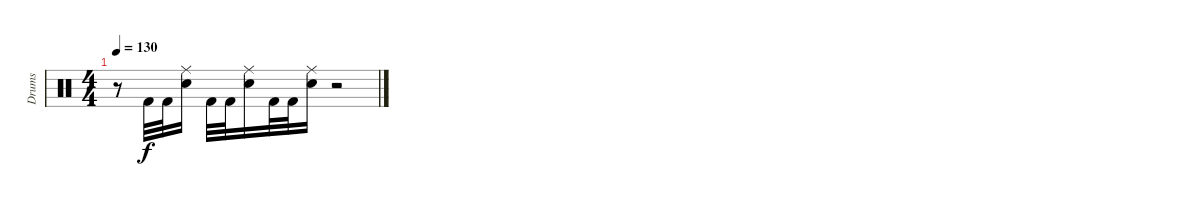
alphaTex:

\track ("Drums" "Drums") {instrument percussion}
\staff {score}
\articulation defaults
\ts (4 4)
\tempo 130
\clef neutral
\ks c
r.8{dy f} "Kick (hit) 2".32 "Kick (hit) 2".32 ("Ride (middle)" "Snare (hit) 2").16 "Kick (hit) 2".32 "Kick (hit) 2".32 ("Ride (middle)" "Snare (hit) 2").16 "Kick (hit) 2".32 "Kick (hit) 2".32 ("Ride (middle)" "Snare (hit) 2").16 r.2
